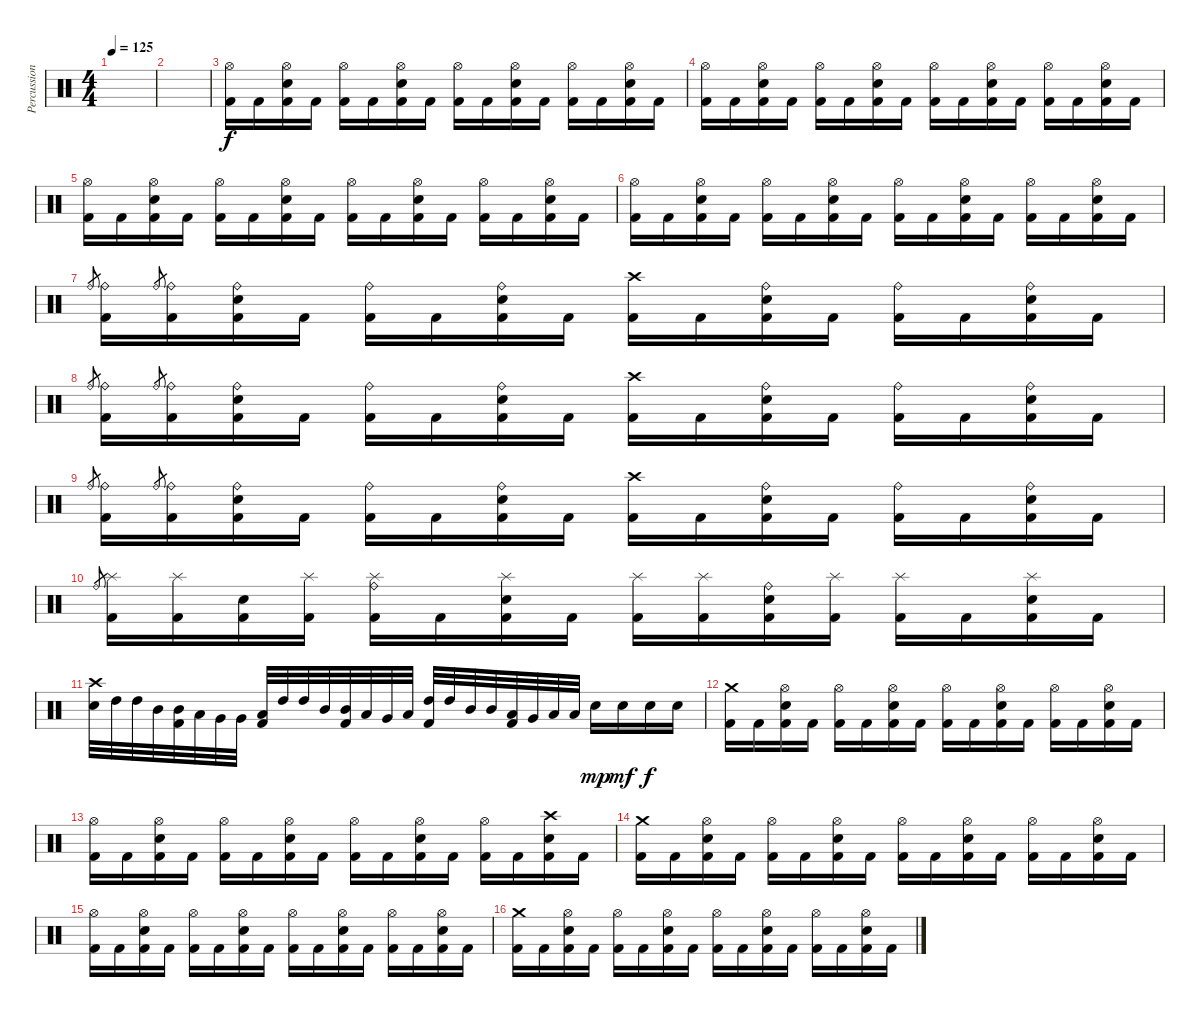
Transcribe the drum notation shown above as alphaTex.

\track ("Percussion" "Percussion") {instrument percussion}
\staff {score}
\articulation defaults
\ts (4 4)
\tempo 125
\clef neutral
\ks c
|
|
("Hi-Hat (open)" "Kick (hit) 2").16 "Kick (hit) 2".16 ("Hi-Hat (open)" "Snare (hit) 2" "Kick (hit) 2").16 "Kick (hit) 2".16 ("Hi-Hat (open)" "Kick (hit) 2").16 "Kick (hit) 2".16 ("Hi-Hat (open)" "Snare (hit) 2" "Kick (hit) 2").16 "Kick (hit) 2".16 ("Hi-Hat (open)" "Kick (hit) 2").16 "Kick (hit) 2".16 ("Hi-Hat (open)" "Snare (hit) 2" "Kick (hit) 2").16 "Kick (hit) 2".16 ("Hi-Hat (open)" "Kick (hit) 2").16 "Kick (hit) 2".16 ("Hi-Hat (open)" "Snare (hit) 2" "Kick (hit) 2").16 "Kick (hit) 2".16 |
("Hi-Hat (open)" "Kick (hit) 2").16 "Kick (hit) 2".16 ("Hi-Hat (open)" "Snare (hit) 2" "Kick (hit) 2").16 "Kick (hit) 2".16 ("Hi-Hat (open)" "Kick (hit) 2").16 "Kick (hit) 2".16 ("Hi-Hat (open)" "Snare (hit) 2" "Kick (hit) 2").16 "Kick (hit) 2".16 ("Hi-Hat (open)" "Kick (hit) 2").16 "Kick (hit) 2".16 ("Hi-Hat (open)" "Snare (hit) 2" "Kick (hit) 2").16 "Kick (hit) 2".16 ("Hi-Hat (open)" "Kick (hit) 2").16 "Kick (hit) 2".16 ("Hi-Hat (open)" "Snare (hit) 2" "Kick (hit) 2").16 "Kick (hit) 2".16 |
("Hi-Hat (open)" "Kick (hit) 2").16 "Kick (hit) 2".16 ("Hi-Hat (open)" "Snare (hit) 2" "Kick (hit) 2").16 "Kick (hit) 2".16 ("Hi-Hat (open)" "Kick (hit) 2").16 "Kick (hit) 2".16 ("Hi-Hat (open)" "Snare (hit) 2" "Kick (hit) 2").16 "Kick (hit) 2".16 ("Hi-Hat (open)" "Kick (hit) 2").16 "Kick (hit) 2".16 ("Hi-Hat (open)" "Snare (hit) 2" "Kick (hit) 2").16 "Kick (hit) 2".16 ("Hi-Hat (open)" "Kick (hit) 2").16 "Kick (hit) 2".16 ("Hi-Hat (open)" "Snare (hit) 2" "Kick (hit) 2").16 "Kick (hit) 2".16 |
("Hi-Hat (open)" "Kick (hit) 2").16 "Kick (hit) 2".16 ("Hi-Hat (open)" "Snare (hit) 2" "Kick (hit) 2").16 "Kick (hit) 2".16 ("Hi-Hat (open)" "Kick (hit) 2").16 "Kick (hit) 2".16 ("Hi-Hat (open)" "Snare (hit) 2" "Kick (hit) 2").16 "Kick (hit) 2".16 ("Hi-Hat (open)" "Kick (hit) 2").16 "Kick (hit) 2".16 ("Hi-Hat (open)" "Snare (hit) 2" "Kick (hit) 2").16 "Kick (hit) 2".16 ("Hi-Hat (open)" "Kick (hit) 2").16 "Kick (hit) 2".16 ("Hi-Hat (open)" "Snare (hit) 2" "Kick (hit) 2").16 "Kick (hit) 2".16 |
"Ride (bell)".8{gr} ("Ride (bell)" "Kick (hit) 2").16 "Ride (bell)".8{gr} ("Ride (bell)" "Kick (hit) 2").16 ("Ride (bell)" "Snare (hit) 2" "Kick (hit) 2").16 "Kick (hit) 2".16 ("Ride (bell)" "Kick (hit) 2").16 "Kick (hit) 2".16 ("Ride (bell)" "Snare (hit) 2" "Kick (hit) 2").16 "Kick (hit) 2".16 ("Crash high (hit)" "Kick (hit) 2").16 "Kick (hit) 2".16 ("Ride (bell)" "Snare (hit) 2" "Kick (hit) 2").16 "Kick (hit) 2".16 ("Ride (bell)" "Kick (hit) 2").16 "Kick (hit) 2".16 ("Ride (bell)" "Snare (hit) 2" "Kick (hit) 2").16 "Kick (hit) 2".16 |
"Ride (bell)".8{gr} ("Ride (bell)" "Kick (hit) 2").16 "Ride (bell)".8{gr} ("Ride (bell)" "Kick (hit) 2").16 ("Ride (bell)" "Snare (hit) 2" "Kick (hit) 2").16 "Kick (hit) 2".16 ("Ride (bell)" "Kick (hit) 2").16 "Kick (hit) 2".16 ("Ride (bell)" "Snare (hit) 2" "Kick (hit) 2").16 "Kick (hit) 2".16 ("Crash high (hit)" "Kick (hit) 2").16 "Kick (hit) 2".16 ("Ride (bell)" "Snare (hit) 2" "Kick (hit) 2").16 "Kick (hit) 2".16 ("Ride (bell)" "Kick (hit) 2").16 "Kick (hit) 2".16 ("Ride (bell)" "Snare (hit) 2" "Kick (hit) 2").16 "Kick (hit) 2".16 |
"Ride (bell)".8{gr} ("Ride (bell)" "Kick (hit) 2").16 "Ride (bell)".8{gr} ("Ride (bell)" "Kick (hit) 2").16 ("Ride (bell)" "Snare (hit) 2" "Kick (hit) 2").16 "Kick (hit) 2".16 ("Ride (bell)" "Kick (hit) 2").16 "Kick (hit) 2".16 ("Ride (bell)" "Snare (hit) 2" "Kick (hit) 2").16 "Kick (hit) 2".16 ("Crash high (hit)" "Kick (hit) 2").16 "Kick (hit) 2".16 ("Ride (bell)" "Snare (hit) 2" "Kick (hit) 2").16 "Kick (hit) 2".16 ("Ride (bell)" "Kick (hit) 2").16 "Kick (hit) 2".16 ("Ride (bell)" "Snare (hit) 2" "Kick (hit) 2").16 "Kick (hit) 2".16 |
"Ride (bell)".8{gr} ("Splash (hit)" "Kick (hit) 2").16 ("Splash (hit)" "Kick (hit) 2").16 ("Snare (hit) 2" "Kick (hit) 2").16 ("Splash (hit)" "Kick (hit) 2").16 ("Ride (bell)" "Splash (hit)" "Kick (hit) 2").16 "Kick (hit) 2".16 ("Splash (hit)" "Snare (hit) 2" "Kick (hit) 2").16 "Kick (hit) 2".16 ("Splash (hit)" "Kick (hit) 2").16 ("Splash (hit)" "Kick (hit) 2").16 ("Ride (bell)" "Snare (hit) 2" "Kick (hit) 2").16 ("Splash (hit)" "Kick (hit) 2").16 ("Splash (hit)" "Kick (hit) 2").16 "Kick (hit) 2".16 ("Splash (hit)" "Snare (hit) 2" "Kick (hit) 2").16 "Kick (hit) 2".16 |
("Crash high (hit)" "Snare (hit) 2").32 "High Tom (hit)".32 "High Tom (hit)".32 "Mid Tom (hit)".32 ("Mid Tom (hit)" "Kick (hit) 2").32 "Low Tom (hit)".32 "Very Low Tom (hit)".32 "Very Low Tom (hit)".32 ("Low Floor Tom (hit)" "Kick (hit) 2").32 "High Tom (hit)".32 "High Tom (hit)".32 "Mid Tom (hit)".32 ("Mid Tom (hit)" "Kick (hit) 2").32 "Low Tom (hit)".32 "Very Low Tom (hit)".32 "Low Floor Tom (hit)".32 ("High Tom (hit)" "Kick (hit) 2").32 "High Tom (hit)".32 "Mid Tom (hit)".32 "Mid Tom (hit)".32 ("Low Tom (hit)" "Kick (hit) 2").32 "Very Low Tom (hit)".32 "Low Floor Tom (hit)".32 "Low Floor Tom (hit)".32 "Snare (hit) 2".16{dy mp} "Snare (hit) 2".16{dy mf} "Snare (hit) 2".16{dy f} "Snare (hit) 2".16 |
("Crash medium (hit)" "Kick (hit) 2").16 "Kick (hit) 2".16 ("Hi-Hat (open)" "Snare (hit) 2" "Kick (hit) 2").16 "Kick (hit) 2".16 ("Hi-Hat (open)" "Kick (hit) 2").16 "Kick (hit) 2".16 ("Hi-Hat (open)" "Snare (hit) 2" "Kick (hit) 2").16 "Kick (hit) 2".16 ("Hi-Hat (open)" "Kick (hit) 2").16 "Kick (hit) 2".16 ("Hi-Hat (open)" "Snare (hit) 2" "Kick (hit) 2").16 "Kick (hit) 2".16 ("Hi-Hat (open)" "Kick (hit) 2").16 "Kick (hit) 2".16 ("Hi-Hat (open)" "Snare (hit) 2" "Kick (hit) 2").16 "Kick (hit) 2".16 |
("Hi-Hat (open)" "Kick (hit) 2").16 "Kick (hit) 2".16 ("Hi-Hat (open)" "Snare (hit) 2" "Kick (hit) 2").16 "Kick (hit) 2".16 ("Hi-Hat (open)" "Kick (hit) 2").16 "Kick (hit) 2".16 ("Hi-Hat (open)" "Snare (hit) 2" "Kick (hit) 2").16 "Kick (hit) 2".16 ("Hi-Hat (open)" "Kick (hit) 2").16 "Kick (hit) 2".16 ("Hi-Hat (open)" "Snare (hit) 2" "Kick (hit) 2").16 "Kick (hit) 2".16 ("Hi-Hat (open)" "Kick (hit) 2").16 "Kick (hit) 2".16 ("Crash high (hit)" "Snare (hit) 2" "Kick (hit) 2").16 "Kick (hit) 2".16 |
("Crash medium (hit)" "Kick (hit) 2").16 "Kick (hit) 2".16 ("Hi-Hat (open)" "Snare (hit) 2" "Kick (hit) 2").16 "Kick (hit) 2".16 ("Hi-Hat (open)" "Kick (hit) 2").16 "Kick (hit) 2".16 ("Hi-Hat (open)" "Snare (hit) 2" "Kick (hit) 2").16 "Kick (hit) 2".16 ("Hi-Hat (open)" "Kick (hit) 2").16 "Kick (hit) 2".16 ("Hi-Hat (open)" "Snare (hit) 2" "Kick (hit) 2").16 "Kick (hit) 2".16 ("Hi-Hat (open)" "Kick (hit) 2").16 "Kick (hit) 2".16 ("Hi-Hat (open)" "Snare (hit) 2" "Kick (hit) 2").16 "Kick (hit) 2".16 |
("Hi-Hat (open)" "Kick (hit) 2").16 "Kick (hit) 2".16 ("Hi-Hat (open)" "Snare (hit) 2" "Kick (hit) 2").16 "Kick (hit) 2".16 ("Hi-Hat (open)" "Kick (hit) 2").16 "Kick (hit) 2".16 ("Hi-Hat (open)" "Snare (hit) 2" "Kick (hit) 2").16 "Kick (hit) 2".16 ("Hi-Hat (open)" "Kick (hit) 2").16 "Kick (hit) 2".16 ("Hi-Hat (open)" "Snare (hit) 2" "Kick (hit) 2").16 "Kick (hit) 2".16 ("Hi-Hat (open)" "Kick (hit) 2").16 "Kick (hit) 2".16 ("Hi-Hat (open)" "Snare (hit) 2" "Kick (hit) 2").16 "Kick (hit) 2".16 |
("Crash medium (hit)" "Kick (hit) 2").16 "Kick (hit) 2".16 ("Hi-Hat (open)" "Snare (hit) 2" "Kick (hit) 2").16 "Kick (hit) 2".16 ("Hi-Hat (open)" "Kick (hit) 2").16 "Kick (hit) 2".16 ("Hi-Hat (open)" "Snare (hit) 2" "Kick (hit) 2").16 "Kick (hit) 2".16 ("Hi-Hat (open)" "Kick (hit) 2").16 "Kick (hit) 2".16 ("Hi-Hat (open)" "Snare (hit) 2" "Kick (hit) 2").16 "Kick (hit) 2".16 ("Hi-Hat (open)" "Kick (hit) 2").16 "Kick (hit) 2".16 ("Hi-Hat (open)" "Snare (hit) 2" "Kick (hit) 2").16 "Kick (hit) 2".16
